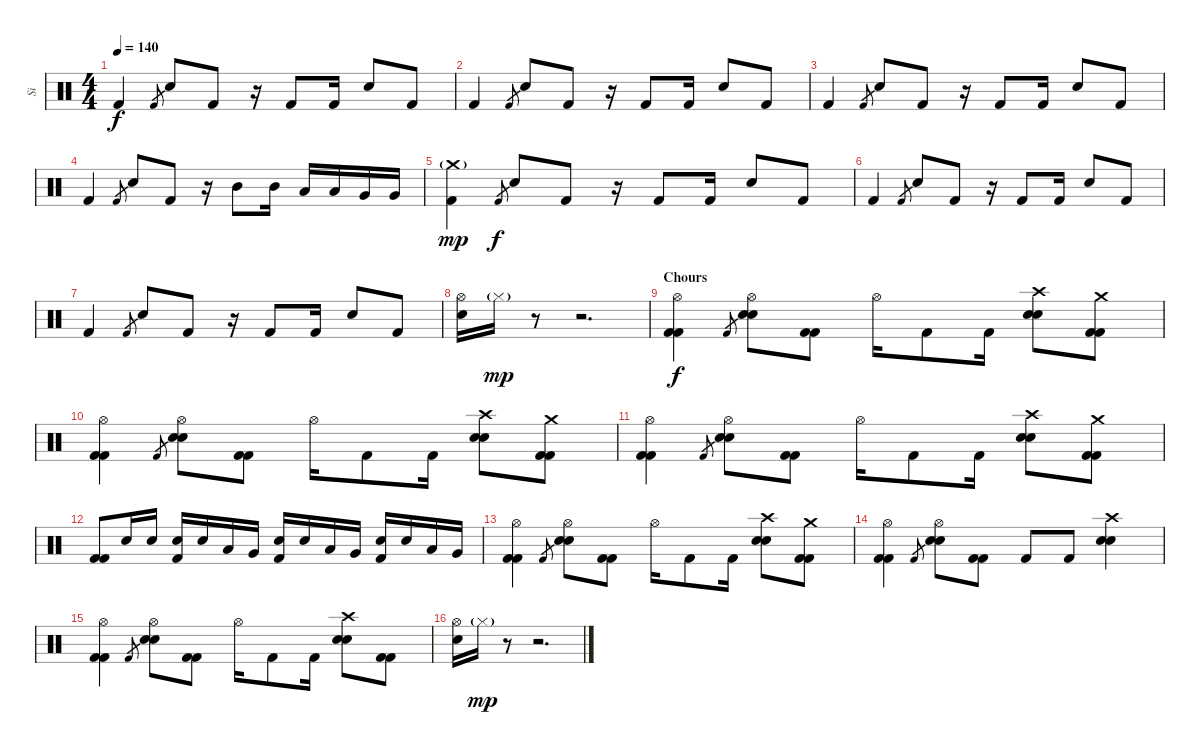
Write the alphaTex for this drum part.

\track ("Si" "Si") {instrument percussion}
\staff {score}
\articulation defaults
\ts (4 4)
\tempo 140
\clef neutral
\ks c "Kick (hit) 2".4{dy f} "Kick (hit) 2".8{gr} "Electric Snare (hit)".8 "Kick (hit) 2".8
r.16 "Kick (hit) 2".8 "Kick (hit) 2".16 "Electric Snare (hit)".8 "Kick (hit) 2".8 |
"Kick (hit) 2".4 "Kick (hit) 2".8{gr} "Electric Snare (hit)".8 "Kick (hit) 2".8 r.16 "Kick (hit) 2".8 "Kick (hit) 2".16 "Electric Snare (hit)".8 "Kick (hit) 2".8 |
"Kick (hit) 2".4 "Kick (hit) 2".8{gr} "Electric Snare (hit)".8 "Kick (hit) 2".8 r.16 "Kick (hit) 2".8 "Kick (hit) 2".16 "Electric Snare (hit)".8 "Kick (hit) 2".8 |
"Kick (hit) 2".4 "Kick (hit) 2".8{gr} "Electric Snare (hit)".8 "Kick (hit) 2".8 r.16 "Mid Tom (hit)".8 "Mid Tom (hit)".16 "Low Tom (hit)".16 "Low Tom (hit)".16 "Very Low Tom (hit)".16 "Very Low Tom (hit)".16 |
("Crash medium (hit)"{g} "Kick (hit) 2").4{dy mp} "Kick (hit) 2".8{gr dy f} "Electric Snare (hit)".8 "Kick (hit) 2".8 r.16 "Kick (hit) 2".8 "Kick (hit) 2".16 "Electric Snare (hit)".8 "Kick (hit) 2".8 |
"Kick (hit) 2".4 "Kick (hit) 2".8{gr} "Electric Snare (hit)".8 "Kick (hit) 2".8 r.16 "Kick (hit) 2".8 "Kick (hit) 2".16 "Electric Snare (hit)".8 "Kick (hit) 2".8 |
"Kick (hit) 2".4 "Kick (hit) 2".8{gr} "Electric Snare (hit)".8 "Kick (hit) 2".8 r.16 "Kick (hit) 2".8 "Kick (hit) 2".16 "Electric Snare (hit)".8 "Kick (hit) 2".8 |
("Hi-Hat (open)" "Electric Snare (hit)").16 "Hi-Hat (closed)"{g}.16{dy mp} r.8 r.2{d} |
\section ("" "Chours")
("Hi-Hat (open)" "Kick (hit) 2" "Kick (hit) 2").4{dy f} "Kick (hit) 2".8{gr} ("Hi-Hat (open)" "Electric Snare (hit)" "Electric Snare (hit)").8 ("Kick (hit) 2" "Kick (hit) 2").8 "Hi-Hat (open)".16 "Kick (hit) 2".8 "Kick (hit) 2".16 ("Crash high (hit)" "Electric Snare (hit)" "Electric Snare (hit)").8 ("Crash medium (hit)" "Kick (hit) 2" "Kick (hit) 2").8 |
("Hi-Hat (open)" "Kick (hit) 2" "Kick (hit) 2").4 "Kick (hit) 2".8{gr} ("Hi-Hat (open)" "Electric Snare (hit)" "Electric Snare (hit)").8 ("Kick (hit) 2" "Kick (hit) 2").8 "Hi-Hat (open)".16 "Kick (hit) 2".8 "Kick (hit) 2".16 ("Crash high (hit)" "Electric Snare (hit)" "Electric Snare (hit)").8 ("Crash medium (hit)" "Kick (hit) 2" "Kick (hit) 2").8 |
("Hi-Hat (open)" "Kick (hit) 2" "Kick (hit) 2").4 "Kick (hit) 2".8{gr} ("Hi-Hat (open)" "Electric Snare (hit)" "Electric Snare (hit)").8 ("Kick (hit) 2" "Kick (hit) 2").8 "Hi-Hat (open)".16 "Kick (hit) 2".8 "Kick (hit) 2".16 ("Crash high (hit)" "Electric Snare (hit)" "Electric Snare (hit)").8 ("Crash medium (hit)" "Kick (hit) 2" "Kick (hit) 2").8 |
("Kick (hit) 2" "Kick (hit) 2").8 "Electric Snare (hit)".16 "Electric Snare (hit)".16 ("Electric Snare (hit)" "Kick (hit) 2").16 "Electric Snare (hit)".16 "Low Tom (hit)".16 "Very Low Tom (hit)".16 ("Electric Snare (hit)" "Kick (hit) 2").16 "Electric Snare (hit)".16 "Low Tom (hit)".16 "Very Low Tom (hit)".16 ("Electric Snare (hit)" "Kick (hit) 2").16 "Electric Snare (hit)".16 "Low Tom (hit)".16 "Very Low Tom (hit)".16 |
("Hi-Hat (open)" "Kick (hit) 2" "Kick (hit) 2").4 "Kick (hit) 2".8{gr} ("Hi-Hat (open)" "Electric Snare (hit)" "Electric Snare (hit)").8 ("Kick (hit) 2" "Kick (hit) 2").8 "Hi-Hat (open)".16 "Kick (hit) 2".8 "Kick (hit) 2".16 ("Crash high (hit)" "Electric Snare (hit)" "Electric Snare (hit)").8 ("Crash medium (hit)" "Kick (hit) 2" "Kick (hit) 2").8 |
("Hi-Hat (open)" "Kick (hit) 2" "Kick (hit) 2").4 "Kick (hit) 2".8{gr} ("Hi-Hat (open)" "Electric Snare (hit)" "Electric Snare (hit)").8 ("Kick (hit) 2" "Kick (hit) 2").8 "Kick (hit) 2".8 "Kick (hit) 2".8 ("Crash high (hit)" "Electric Snare (hit)" "Electric Snare (hit)").4 |
("Hi-Hat (open)" "Kick (hit) 2" "Kick (hit) 2").4 "Kick (hit) 2".8{gr} ("Hi-Hat (open)" "Electric Snare (hit)" "Electric Snare (hit)").8 ("Kick (hit) 2" "Kick (hit) 2").8 "Hi-Hat (open)".16 "Kick (hit) 2".8 "Kick (hit) 2".16 ("Crash high (hit)" "Electric Snare (hit)" "Electric Snare (hit)").8 ("Kick (hit) 2" "Kick (hit) 2").8 |
("Hi-Hat (open)" "Electric Snare (hit)").16 "Hi-Hat (closed)"{g}.16{dy mp} r.8 r.2{d}
